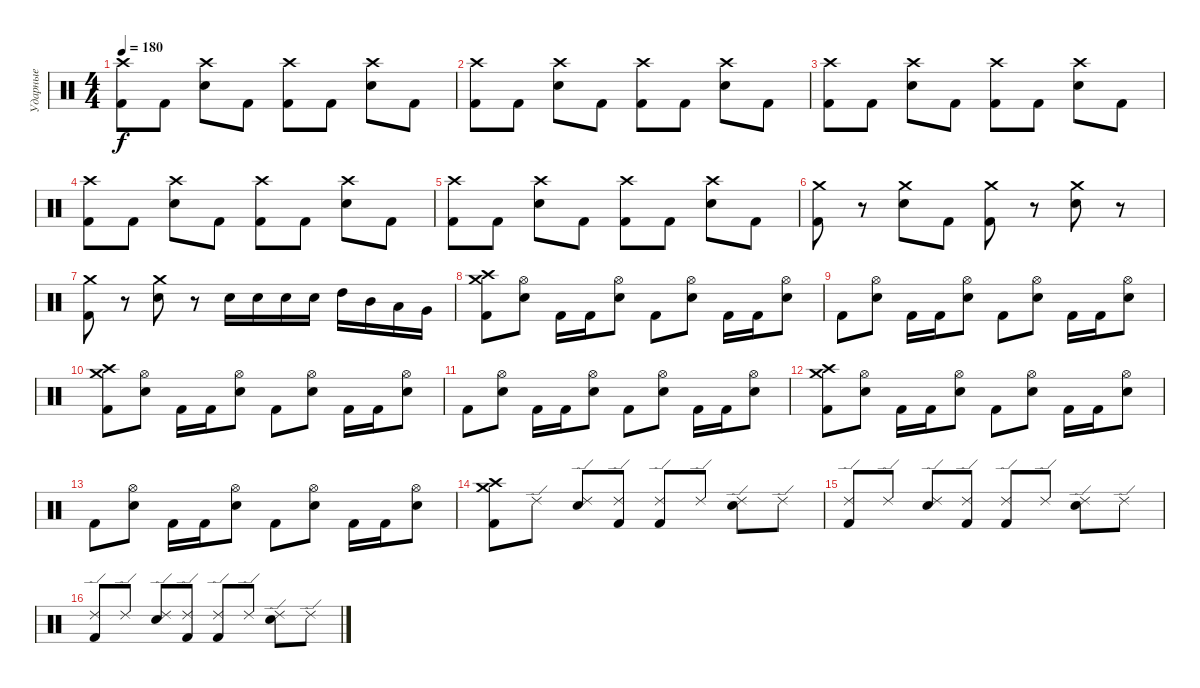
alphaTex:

\track ("Ударные" "Ударные") {instrument percussion}
\staff {score}
\articulation defaults
\ts (4 4)
\tempo 180
\clef neutral
\ks c
("Crash high (hit)" "Kick (hit) 2").8{dy f} "Kick (hit) 2".8 ("Crash high (hit)" "Electric Snare (hit)").8 "Kick (hit) 2".8 ("Crash high (hit)" "Kick (hit) 2").8 "Kick (hit) 2".8 ("Crash high (hit)" "Electric Snare (hit)").8 "Kick (hit) 2".8 |
("Crash high (hit)" "Kick (hit) 2").8 "Kick (hit) 2".8 ("Crash high (hit)" "Electric Snare (hit)").8 "Kick (hit) 2".8 ("Crash high (hit)" "Kick (hit) 2").8 "Kick (hit) 2".8 ("Crash high (hit)" "Electric Snare (hit)").8 "Kick (hit) 2".8 |
("Crash high (hit)" "Kick (hit) 2").8 "Kick (hit) 2".8 ("Crash high (hit)" "Electric Snare (hit)").8 "Kick (hit) 2".8 ("Crash high (hit)" "Kick (hit) 2").8 "Kick (hit) 2".8 ("Crash high (hit)" "Electric Snare (hit)").8 "Kick (hit) 2".8 |
("Crash high (hit)" "Kick (hit) 2").8 "Kick (hit) 2".8 ("Crash high (hit)" "Electric Snare (hit)").8 "Kick (hit) 2".8 ("Crash high (hit)" "Kick (hit) 2").8 "Kick (hit) 2".8 ("Crash high (hit)" "Electric Snare (hit)").8 "Kick (hit) 2".8 |
("Crash high (hit)" "Kick (hit) 2").8 "Kick (hit) 2".8 ("Crash high (hit)" "Electric Snare (hit)").8 "Kick (hit) 2".8 ("Crash high (hit)" "Kick (hit) 2").8 "Kick (hit) 2".8 ("Crash high (hit)" "Electric Snare (hit)").8 "Kick (hit) 2".8 |
("Crash medium (hit)" "Kick (hit) 2").8 r.8 ("Crash medium (hit)" "Electric Snare (hit)").8 "Kick (hit) 2".8 ("Crash medium (hit)" "Kick (hit) 2").8 r.8 ("Crash medium (hit)" "Electric Snare (hit)").8 r.8 |
("Crash medium (hit)" "Kick (hit) 2").8 r.8 ("Crash medium (hit)" "Electric Snare (hit)").8 r.8 "Electric Snare (hit)".16 "Electric Snare (hit)".16 "Electric Snare (hit)".16 "Electric Snare (hit)".16 "High Tom (hit)".16 "Mid Tom (hit)".16 "Low Tom (hit)".16 "Very Low Tom (hit)".16 |
("Crash medium (hit)" "Crash high (hit)" "Kick (hit) 2").8 ("Hi-Hat (open)" "Electric Snare (hit)").8 "Kick (hit) 2".16 "Kick (hit) 2".16 ("Hi-Hat (open)" "Electric Snare (hit)").8 "Kick (hit) 2".8 ("Hi-Hat (open)" "Electric Snare (hit)").8 "Kick (hit) 2".16 "Kick (hit) 2".16 ("Hi-Hat (open)" "Electric Snare (hit)").8 |
"Kick (hit) 2".8 ("Hi-Hat (open)" "Electric Snare (hit)").8 "Kick (hit) 2".16 "Kick (hit) 2".16 ("Hi-Hat (open)" "Electric Snare (hit)").8 "Kick (hit) 2".8 ("Hi-Hat (open)" "Electric Snare (hit)").8 "Kick (hit) 2".16 "Kick (hit) 2".16 ("Hi-Hat (open)" "Electric Snare (hit)").8 |
("Crash medium (hit)" "Crash high (hit)" "Kick (hit) 2").8 ("Hi-Hat (open)" "Electric Snare (hit)").8 "Kick (hit) 2".16 "Kick (hit) 2".16 ("Hi-Hat (open)" "Electric Snare (hit)").8 "Kick (hit) 2".8 ("Hi-Hat (open)" "Electric Snare (hit)").8 "Kick (hit) 2".16 "Kick (hit) 2".16 ("Hi-Hat (open)" "Electric Snare (hit)").8 |
"Kick (hit) 2".8 ("Hi-Hat (open)" "Electric Snare (hit)").8 "Kick (hit) 2".16 "Kick (hit) 2".16 ("Hi-Hat (open)" "Electric Snare (hit)").8 "Kick (hit) 2".8 ("Hi-Hat (open)" "Electric Snare (hit)").8 "Kick (hit) 2".16 "Kick (hit) 2".16 ("Hi-Hat (open)" "Electric Snare (hit)").8 |
("Crash medium (hit)" "Crash high (hit)" "Kick (hit) 2").8 ("Hi-Hat (open)" "Electric Snare (hit)").8 "Kick (hit) 2".16 "Kick (hit) 2".16 ("Hi-Hat (open)" "Electric Snare (hit)").8 "Kick (hit) 2".8 ("Hi-Hat (open)" "Electric Snare (hit)").8 "Kick (hit) 2".16 "Kick (hit) 2".16 ("Hi-Hat (open)" "Electric Snare (hit)").8 |
"Kick (hit) 2".8 ("Hi-Hat (open)" "Electric Snare (hit)").8 "Kick (hit) 2".16 "Kick (hit) 2".16 ("Hi-Hat (open)" "Electric Snare (hit)").8 "Kick (hit) 2".8 ("Hi-Hat (open)" "Electric Snare (hit)").8 "Kick (hit) 2".16 "Kick (hit) 2".16 ("Hi-Hat (open)" "Electric Snare (hit)").8 |
("Crash medium (hit)" "Crash high (hit)" "Kick (hit) 2").8 "Ride (edge) 2".8 ("Ride (edge) 2" "Electric Snare (hit)").8 ("Ride (edge) 2" "Kick (hit) 2").8 ("Ride (edge) 2" "Kick (hit) 2").8 "Ride (edge) 2".8 ("Ride (edge) 2" "Electric Snare (hit)").8 "Ride (edge) 2".8 |
("Ride (edge) 2" "Kick (hit) 2").8 "Ride (edge) 2".8 ("Ride (edge) 2" "Electric Snare (hit)").8 ("Ride (edge) 2" "Kick (hit) 2").8 ("Ride (edge) 2" "Kick (hit) 2").8 "Ride (edge) 2".8 ("Ride (edge) 2" "Electric Snare (hit)").8 "Ride (edge) 2".8 |
("Ride (edge) 2" "Kick (hit) 2").8 "Ride (edge) 2".8 ("Ride (edge) 2" "Electric Snare (hit)").8 ("Ride (edge) 2" "Kick (hit) 2").8 ("Ride (edge) 2" "Kick (hit) 2").8 "Ride (edge) 2".8 ("Ride (edge) 2" "Electric Snare (hit)").8 "Ride (edge) 2".8
